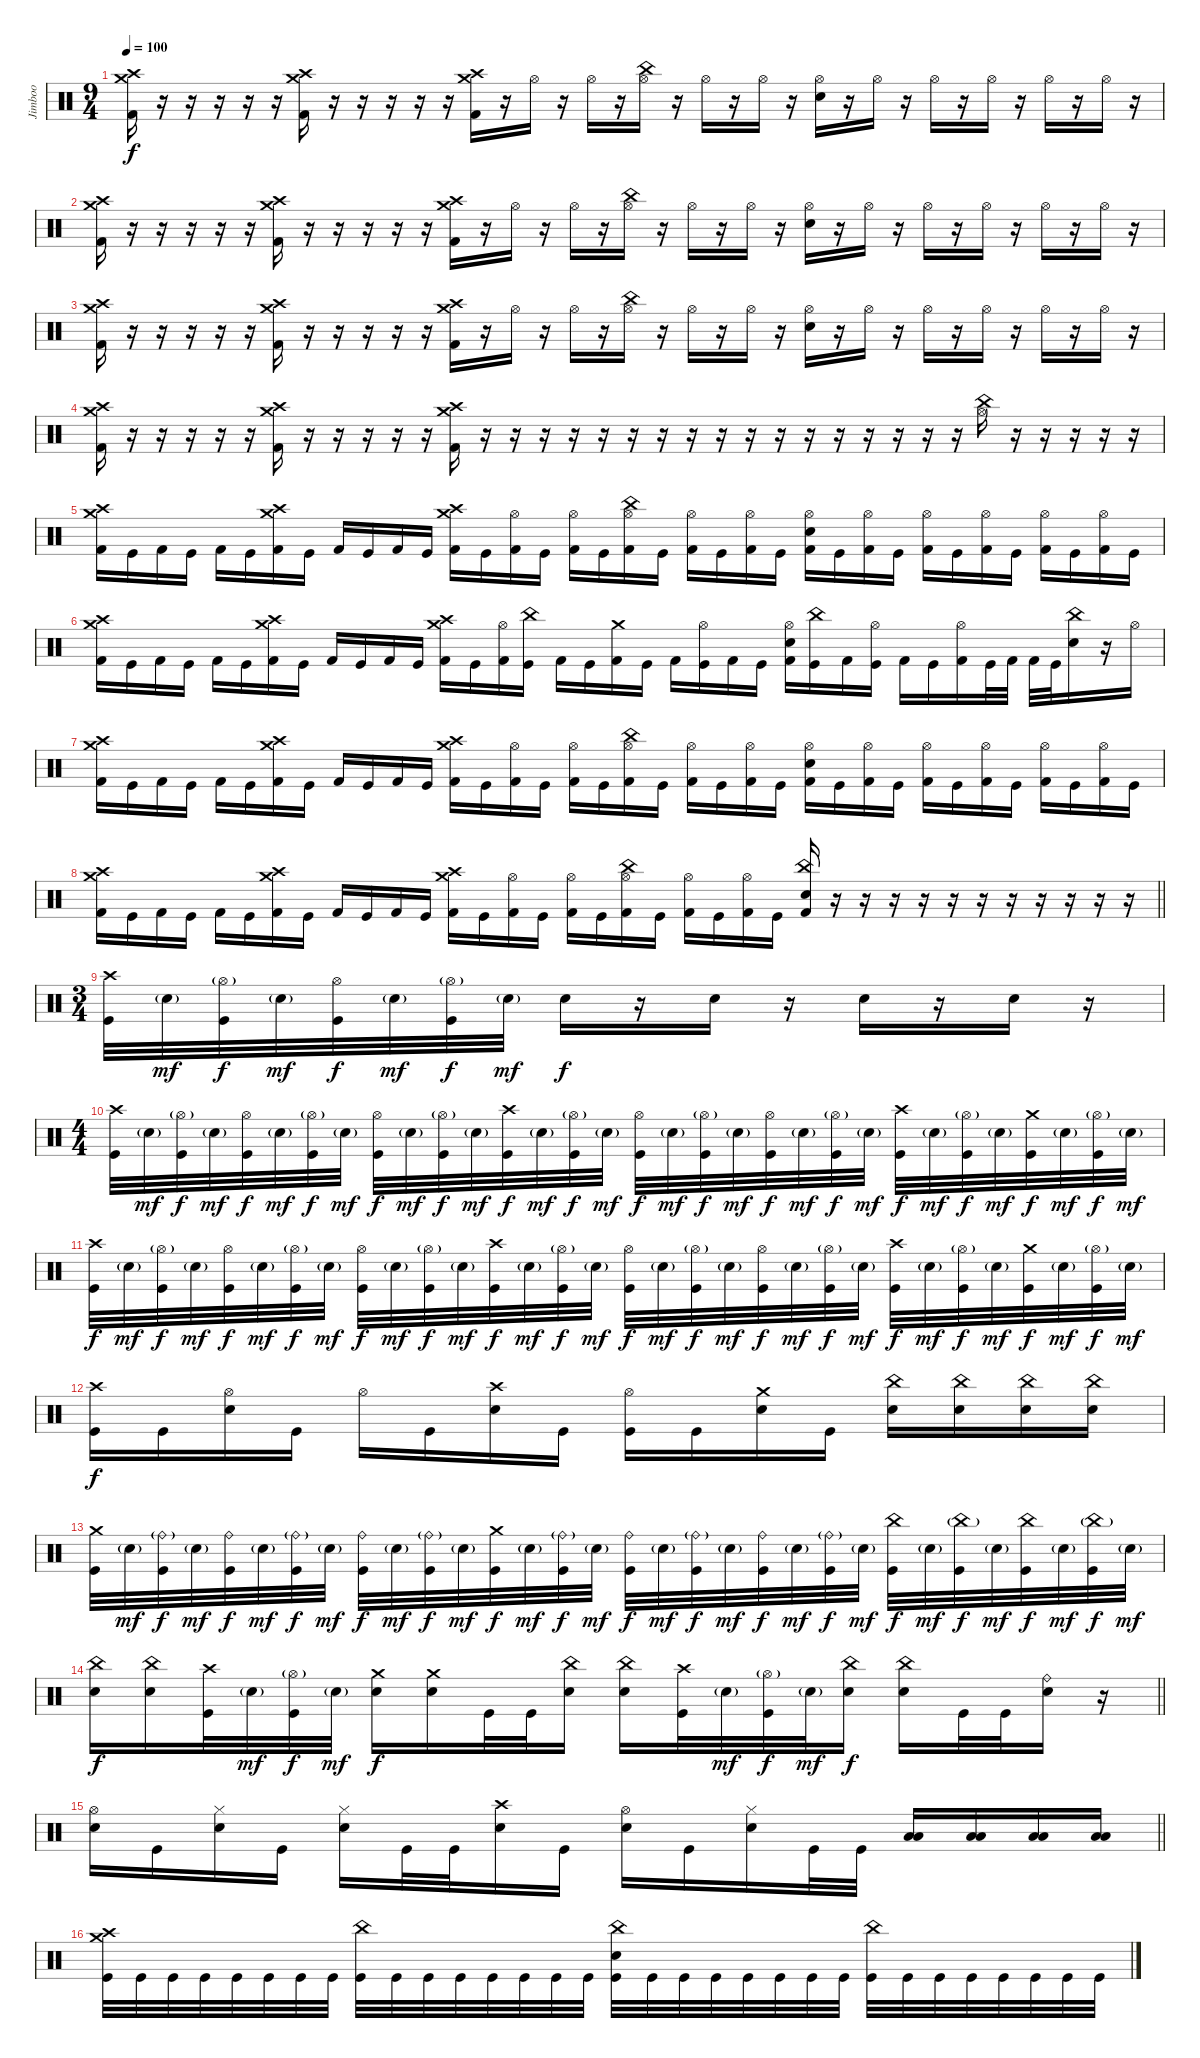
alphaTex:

\track ("Jimboo" "Jimboo") {instrument percussion}
\staff
\articulation defaults
\ts (9 4)
\section ("" "")
\tempo 100
\clef neutral
\ks c
("Kick (hit) 2" "Crash medium (hit)" "Crash high (hit)").16{dy f} r.16 r.16 r.16 r.16 r.16 ("Kick (hit) 2" "Crash medium (hit)" "Crash high (hit)").16 r.16 r.16 r.16 r.16 r.16 ("Kick (hit) 2" "Crash medium (hit)" "Crash high (hit)").16 r.16 "Hi-Hat (open)".16 r.16 "Hi-Hat (open)".16 r.16 ("Hi-Hat (open)" "China (hit)").16 r.16 "Hi-Hat (open)".16 r.16 "Hi-Hat (open)".16 r.16 ("Hi-Hat (open)" "Electric Snare (hit)").16 r.16 "Hi-Hat (open)".16 r.16 "Hi-Hat (open)".16 r.16 "Hi-Hat (open)".16 r.16 "Hi-Hat (open)".16 r.16 "Hi-Hat (open)".16 r.16 |
("Kick (hit) 2" "Crash medium (hit)" "Crash high (hit)").16 r.16 r.16 r.16 r.16 r.16 ("Kick (hit) 2" "Crash medium (hit)" "Crash high (hit)").16 r.16 r.16 r.16 r.16 r.16 ("Kick (hit) 2" "Crash medium (hit)" "Crash high (hit)").16 r.16 "Hi-Hat (open)".16 r.16 "Hi-Hat (open)".16 r.16 ("Hi-Hat (open)" "China (hit)").16 r.16 "Hi-Hat (open)".16 r.16 "Hi-Hat (open)".16 r.16 ("Hi-Hat (open)" "Electric Snare (hit)").16 r.16 "Hi-Hat (open)".16 r.16 "Hi-Hat (open)".16 r.16 "Hi-Hat (open)".16 r.16 "Hi-Hat (open)".16 r.16 "Hi-Hat (open)".16 r.16 |
("Kick (hit) 2" "Crash medium (hit)" "Crash high (hit)").16 r.16 r.16 r.16 r.16 r.16 ("Kick (hit) 2" "Crash medium (hit)" "Crash high (hit)").16 r.16 r.16 r.16 r.16 r.16 ("Kick (hit) 2" "Crash medium (hit)" "Crash high (hit)").16 r.16 "Hi-Hat (open)".16 r.16 "Hi-Hat (open)".16 r.16 ("Hi-Hat (open)" "China (hit)").16 r.16 "Hi-Hat (open)".16 r.16 "Hi-Hat (open)".16 r.16 ("Hi-Hat (open)" "Electric Snare (hit)").16 r.16 "Hi-Hat (open)".16 r.16 "Hi-Hat (open)".16 r.16 "Hi-Hat (open)".16 r.16 "Hi-Hat (open)".16 r.16 "Hi-Hat (open)".16 r.16 |
("Kick (hit) 2" "Crash medium (hit)" "Crash high (hit)").16 r.16 r.16 r.16 r.16 r.16 ("Kick (hit) 2" "Crash medium (hit)" "Crash high (hit)").16 r.16 r.16 r.16 r.16 r.16 ("Kick (hit) 2" "Crash medium (hit)" "Crash high (hit)").16 r.16 r.16 r.16 r.16 r.16 r.16 r.16 r.16 r.16 r.16 r.16 r.16 r.16 r.16 r.16 r.16 r.16 ("China (hit)" "Hi-Hat (open)").16 r.16 r.16 r.16 r.16 r.16 |
("Kick (hit) 2" "Crash medium (hit)" "Crash high (hit)").16 "Kick (hit)".16 "Kick (hit) 2".16 "Kick (hit)".16 "Kick (hit) 2".16 "Kick (hit)".16 ("Kick (hit) 2" "Crash medium (hit)" "Crash high (hit)").16 "Kick (hit)".16 "Kick (hit) 2".16 "Kick (hit)".16 "Kick (hit) 2".16 "Kick (hit)".16 ("Kick (hit) 2" "Crash medium (hit)" "Crash high (hit)").16 "Kick (hit)".16 ("Kick (hit) 2" "Hi-Hat (open)").16 "Kick (hit)".16 ("Kick (hit) 2" "Hi-Hat (open)").16 "Kick (hit)".16 ("Kick (hit) 2" "Hi-Hat (open)" "China (hit)").16 "Kick (hit)".16 ("Kick (hit) 2" "Hi-Hat (open)").16 "Kick (hit)".16 ("Kick (hit) 2" "Hi-Hat (open)").16 "Kick (hit)".16 ("Kick (hit) 2" "Hi-Hat (open)" "Electric Snare (hit)").16 "Kick (hit)".16 ("Kick (hit) 2" "Hi-Hat (open)").16 "Kick (hit)".16 ("Kick (hit) 2" "Hi-Hat (open)").16 "Kick (hit)".16 ("Kick (hit) 2" "Hi-Hat (open)").16 "Kick (hit)".16 ("Kick (hit) 2" "Hi-Hat (open)").16 "Kick (hit)".16 ("Kick (hit) 2" "Hi-Hat (open)").16 "Kick (hit)".16 |
("Kick (hit) 2" "Crash medium (hit)" "Crash high (hit)").16 "Kick (hit)".16 "Kick (hit) 2".16 "Kick (hit)".16 "Kick (hit) 2".16 "Kick (hit)".16 ("Kick (hit) 2" "Crash medium (hit)" "Crash high (hit)").16 "Kick (hit)".16 "Kick (hit) 2".16 "Kick (hit)".16 "Kick (hit) 2".16 "Kick (hit)".16 ("Kick (hit) 2" "Crash medium (hit)" "Crash high (hit)").16 "Kick (hit)".16 ("Kick (hit) 2" "Hi-Hat (open)").16 ("Kick (hit)" "China (hit)").16 "Kick (hit) 2".16 "Kick (hit)".16 ("Kick (hit) 2" "Crash medium (hit)").16 "Kick (hit)".16 "Kick (hit) 2".16 ("Kick (hit)" "Hi-Hat (open)").16 "Kick (hit) 2".16 "Kick (hit)".16 ("Kick (hit) 2" "Hi-Hat (open)" "Electric Snare (hit)").16 ("Kick (hit)" "China (hit)").16 "Kick (hit) 2".16 ("Kick (hit)" "Hi-Hat (open)").16 "Kick (hit) 2".16 "Kick (hit)".16 ("Kick (hit) 2" "Hi-Hat (open)").16 "Kick (hit)".32 "Kick (hit) 2".32 "Kick (hit) 2".32 "Kick (hit)".32 ("Electric Snare (hit)" "China (hit)").16 r.16 "Hi-Hat (open)".16 |
("Kick (hit) 2" "Crash medium (hit)" "Crash high (hit)").16 "Kick (hit)".16 "Kick (hit) 2".16 "Kick (hit)".16 "Kick (hit) 2".16 "Kick (hit)".16 ("Kick (hit) 2" "Crash medium (hit)" "Crash high (hit)").16 "Kick (hit)".16 "Kick (hit) 2".16 "Kick (hit)".16 "Kick (hit) 2".16 "Kick (hit)".16 ("Kick (hit) 2" "Crash medium (hit)" "Crash high (hit)").16 "Kick (hit)".16 ("Kick (hit) 2" "Hi-Hat (open)").16 "Kick (hit)".16 ("Kick (hit) 2" "Hi-Hat (open)").16 "Kick (hit)".16 ("Kick (hit) 2" "Hi-Hat (open)" "China (hit)").16 "Kick (hit)".16 ("Kick (hit) 2" "Hi-Hat (open)").16 "Kick (hit)".16 ("Kick (hit) 2" "Hi-Hat (open)").16 "Kick (hit)".16 ("Kick (hit) 2" "Hi-Hat (open)" "Electric Snare (hit)").16 "Kick (hit)".16 ("Kick (hit) 2" "Hi-Hat (open)").16 "Kick (hit)".16 ("Kick (hit) 2" "Hi-Hat (open)").16 "Kick (hit)".16 ("Kick (hit) 2" "Hi-Hat (open)").16 "Kick (hit)".16 ("Kick (hit) 2" "Hi-Hat (open)").16 "Kick (hit)".16 ("Kick (hit) 2" "Hi-Hat (open)").16 "Kick (hit)".16 |
\barLineRight lightlight
("Kick (hit) 2" "Crash medium (hit)" "Crash high (hit)").16 "Kick (hit)".16 "Kick (hit) 2".16 "Kick (hit)".16 "Kick (hit) 2".16 "Kick (hit)".16 ("Kick (hit) 2" "Crash medium (hit)" "Crash high (hit)").16 "Kick (hit)".16 "Kick (hit) 2".16 "Kick (hit)".16 "Kick (hit) 2".16 "Kick (hit)".16 ("Kick (hit) 2" "Crash medium (hit)" "Crash high (hit)").16 "Kick (hit)".16 ("Kick (hit) 2" "Hi-Hat (open)").16 "Kick (hit)".16 ("Kick (hit) 2" "Hi-Hat (open)").16 "Kick (hit)".16 ("Kick (hit) 2" "Hi-Hat (open)" "China (hit)").16 "Kick (hit)".16 ("Kick (hit) 2" "Hi-Hat (open)").16 "Kick (hit)".16 ("Kick (hit) 2" "Hi-Hat (open)").16 "Kick (hit)".16 ("Kick (hit) 2" "China (hit)" "Electric Snare (hit)").16 r.16 r.16 r.16 r.16 r.16 r.16 r.16 r.16 r.16 r.16 r.16 |
\ts (3 4)
\section ("" "")
("Kick (hit)" "Crash high (hit)").32 "Snare (hit) 2"{g}.32{dy mf} ("Kick (hit)" "Hi-Hat (open)"{g}).32{dy f} "Snare (hit) 2"{g}.32{dy mf} ("Kick (hit)" "Hi-Hat (open)").32{dy f} "Snare (hit) 2"{g}.32{dy mf} ("Kick (hit)" "Hi-Hat (open)"{g}).32{dy f} "Snare (hit) 2"{g}.32{dy mf} "Snare (hit) 2".16{dy f} r.16 "Snare (hit) 2".16 r.16 "Snare (hit) 2".16 r.16 "Snare (hit) 2".16 r.16 |
\ts (4 4)
("Kick (hit)" "Crash high (hit)").32 "Snare (hit) 2"{g}.32{dy mf} ("Kick (hit)" "Hi-Hat (open)"{g}).32{dy f} "Snare (hit) 2"{g}.32{dy mf} ("Kick (hit)" "Hi-Hat (open)").32{dy f} "Snare (hit) 2"{g}.32{dy mf} ("Kick (hit)" "Hi-Hat (open)"{g}).32{dy f} "Snare (hit) 2"{g}.32{dy mf} ("Kick (hit)" "Hi-Hat (open)").32{dy f} "Snare (hit) 2"{g}.32{dy mf} ("Kick (hit)" "Hi-Hat (open)"{g}).32{dy f} "Snare (hit) 2"{g}.32{dy mf} ("Kick (hit)" "Crash high (hit)").32{dy f} "Snare (hit) 2"{g}.32{dy mf} ("Kick (hit)" "Hi-Hat (open)"{g}).32{dy f} "Snare (hit) 2"{g}.32{dy mf} ("Kick (hit)" "Hi-Hat (open)").32{dy f} "Snare (hit) 2"{g}.32{dy mf} ("Kick (hit)" "Hi-Hat (open)"{g}).32{dy f} "Snare (hit) 2"{g}.32{dy mf} ("Kick (hit)" "Hi-Hat (open)").32{dy f} "Snare (hit) 2"{g}.32{dy mf} ("Kick (hit)" "Hi-Hat (open)"{g}).32{dy f} "Snare (hit) 2"{g}.32{dy mf} ("Kick (hit)" "Crash high (hit)").32{dy f} "Snare (hit) 2"{g}.32{dy mf} ("Kick (hit)" "Hi-Hat (open)"{g}).32{dy f} "Snare (hit) 2"{g}.32{dy mf} ("Kick (hit)" "Crash medium (hit)").32{dy f} "Snare (hit) 2"{g}.32{dy mf} ("Kick (hit)" "Hi-Hat (open)"{g}).32{dy f} "Snare (hit) 2"{g}.32{dy mf} |
("Kick (hit)" "Crash high (hit)").32{dy f} "Snare (hit) 2"{g}.32{dy mf} ("Kick (hit)" "Hi-Hat (open)"{g}).32{dy f} "Snare (hit) 2"{g}.32{dy mf} ("Kick (hit)" "Hi-Hat (open)").32{dy f} "Snare (hit) 2"{g}.32{dy mf} ("Kick (hit)" "Hi-Hat (open)"{g}).32{dy f} "Snare (hit) 2"{g}.32{dy mf} ("Kick (hit)" "Hi-Hat (open)").32{dy f} "Snare (hit) 2"{g}.32{dy mf} ("Kick (hit)" "Hi-Hat (open)"{g}).32{dy f} "Snare (hit) 2"{g}.32{dy mf} ("Kick (hit)" "Crash high (hit)").32{dy f} "Snare (hit) 2"{g}.32{dy mf} ("Kick (hit)" "Hi-Hat (open)"{g}).32{dy f} "Snare (hit) 2"{g}.32{dy mf} ("Kick (hit)" "Hi-Hat (open)").32{dy f} "Snare (hit) 2"{g}.32{dy mf} ("Kick (hit)" "Hi-Hat (open)"{g}).32{dy f} "Snare (hit) 2"{g}.32{dy mf} ("Kick (hit)" "Hi-Hat (open)").32{dy f} "Snare (hit) 2"{g}.32{dy mf} ("Kick (hit)" "Hi-Hat (open)"{g}).32{dy f} "Snare (hit) 2"{g}.32{dy mf} ("Kick (hit)" "Crash high (hit)").32{dy f} "Snare (hit) 2"{g}.32{dy mf} ("Kick (hit)" "Hi-Hat (open)"{g}).32{dy f} "Snare (hit) 2"{g}.32{dy mf} ("Kick (hit)" "Crash medium (hit)").32{dy f} "Snare (hit) 2"{g}.32{dy mf} ("Kick (hit)" "Hi-Hat (open)"{g}).32{dy f} "Snare (hit) 2"{g}.32{dy mf} |
("Kick (hit)" "Crash high (hit)").16{dy f} "Kick (hit)".16 ("Snare (hit) 2" "Hi-Hat (open)").16 "Kick (hit)".16 "Hi-Hat (open)".16 "Kick (hit)".16 ("Snare (hit) 2" "Crash high (hit)").16 "Kick (hit)".16 ("Kick (hit)" "Hi-Hat (open)").16 "Kick (hit)".16 ("Snare (hit) 2" "Crash medium (hit)").16 "Kick (hit)".16 ("Snare (hit) 2" "China (hit)").16 ("Snare (hit) 2" "China (hit)").16 ("Snare (hit) 2" "China (hit)").16 ("Snare (hit) 2" "China (hit)").16 |
("Kick (hit)" "Crash medium (hit)").32 "Snare (hit) 2"{g}.32{dy mf} ("Kick (hit)" "Ride (bell)"{g}).32{dy f} "Snare (hit) 2"{g}.32{dy mf} ("Kick (hit)" "Ride (bell)").32{dy f} "Snare (hit) 2"{g}.32{dy mf} ("Kick (hit)" "Ride (bell)"{g}).32{dy f} "Snare (hit) 2"{g}.32{dy mf} ("Kick (hit)" "Ride (bell)").32{dy f} "Snare (hit) 2"{g}.32{dy mf} ("Kick (hit)" "Ride (bell)"{g}).32{dy f} "Snare (hit) 2"{g}.32{dy mf} ("Kick (hit)" "Crash medium (hit)").32{dy f} "Snare (hit) 2"{g}.32{dy mf} ("Kick (hit)" "Ride (bell)"{g}).32{dy f} "Snare (hit) 2"{g}.32{dy mf} ("Kick (hit)" "Ride (bell)").32{dy f} "Snare (hit) 2"{g}.32{dy mf} ("Kick (hit)" "Ride (bell)"{g}).32{dy f} "Snare (hit) 2"{g}.32{dy mf} ("Kick (hit)" "Ride (bell)").32{dy f} "Snare (hit) 2"{g}.32{dy mf} ("Kick (hit)" "Ride (bell)"{g}).32{dy f} "Snare (hit) 2"{g}.32{dy mf} ("Kick (hit)" "China (hit)").32{dy f} "Snare (hit) 2"{g}.32{dy mf} ("Kick (hit)" "China (hit)"{g}).32{dy f} "Snare (hit) 2"{g}.32{dy mf} ("Kick (hit)" "China (hit)").32{dy f} "Snare (hit) 2"{g}.32{dy mf} ("Kick (hit)" "China (hit)"{g}).32{dy f} "Snare (hit) 2"{g}.32{dy mf} |
\barLineRight lightlight
("Snare (hit) 2" "China (hit)").16{dy f} ("Snare (hit) 2" "China (hit)").16 ("Kick (hit)" "Crash high (hit)").32 "Snare (hit) 2"{g}.32{dy mf} ("Kick (hit)" "Hi-Hat (open)"{g}).32{dy f} "Snare (hit) 2"{g}.32{dy mf} ("Snare (hit) 2" "Crash medium (hit)").16{dy f} ("Snare (hit) 2" "Crash medium (hit)").16 "Kick (hit)".32 "Kick (hit)".32 ("Snare (hit) 2" "China (hit)").16 ("Snare (hit) 2" "China (hit)").16 ("Kick (hit)" "Crash high (hit)").32 "Snare (hit) 2"{g}.32{dy mf} ("Kick (hit)" "Hi-Hat (open)"{g}).32{dy f} "Snare (hit) 2"{g}.32{dy mf} ("Snare (hit) 2" "China (hit)").16{dy f} ("Snare (hit) 2" "China (hit)").16 "Kick (hit)".32 "Kick (hit)".32 ("Snare (hit) 2" "Ride (bell)").16 r.16 |
\section ("" " ")
\barLineRight lightlight
("Snare (hit) 2" "Hi-Hat (open)").16 "Kick (hit)".16 ("Snare (hit) 2" "Hi-Hat (closed)").16 "Kick (hit)".16 ("Snare (hit) 2" "Hi-Hat (closed)").16 "Kick (hit)".32 "Kick (hit)".32 ("Snare (hit) 2" "Crash high (hit)").16 "Kick (hit)".16 ("Snare (hit) 2" "Hi-Hat (open)").16 "Kick (hit)".16 ("Snare (hit) 2" "Hi-Hat (closed)").16 "Kick (hit)".32 "Kick (hit)".32 ("Low Floor Tom (hit)" "Low Tom (hit)").16 ("Low Floor Tom (hit)" "Low Tom (hit)").16 ("Low Floor Tom (hit)" "Low Tom (hit)").16 ("Low Floor Tom (hit)" "Low Tom (hit)").16 |
\section ("" " ")
("Kick (hit)" "Crash medium (hit)" "Crash high (hit)").32 "Kick (hit)".32 "Kick (hit)".32 "Kick (hit)".32 "Kick (hit)".32 "Kick (hit)".32 "Kick (hit)".32 "Kick (hit)".32 ("Kick (hit)" "China (hit)").32 "Kick (hit)".32 "Kick (hit)".32 "Kick (hit)".32 "Kick (hit)".32 "Kick (hit)".32 "Kick (hit)".32 "Kick (hit)".32 ("Kick (hit)" "China (hit)" "Snare (hit) 2").32 "Kick (hit)".32 "Kick (hit)".32 "Kick (hit)".32 "Kick (hit)".32 "Kick (hit)".32 "Kick (hit)".32 "Kick (hit)".32 ("Kick (hit)" "China (hit)").32 "Kick (hit)".32 "Kick (hit)".32 "Kick (hit)".32 "Kick (hit)".32 "Kick (hit)".32 "Kick (hit)".32 "Kick (hit)".32
